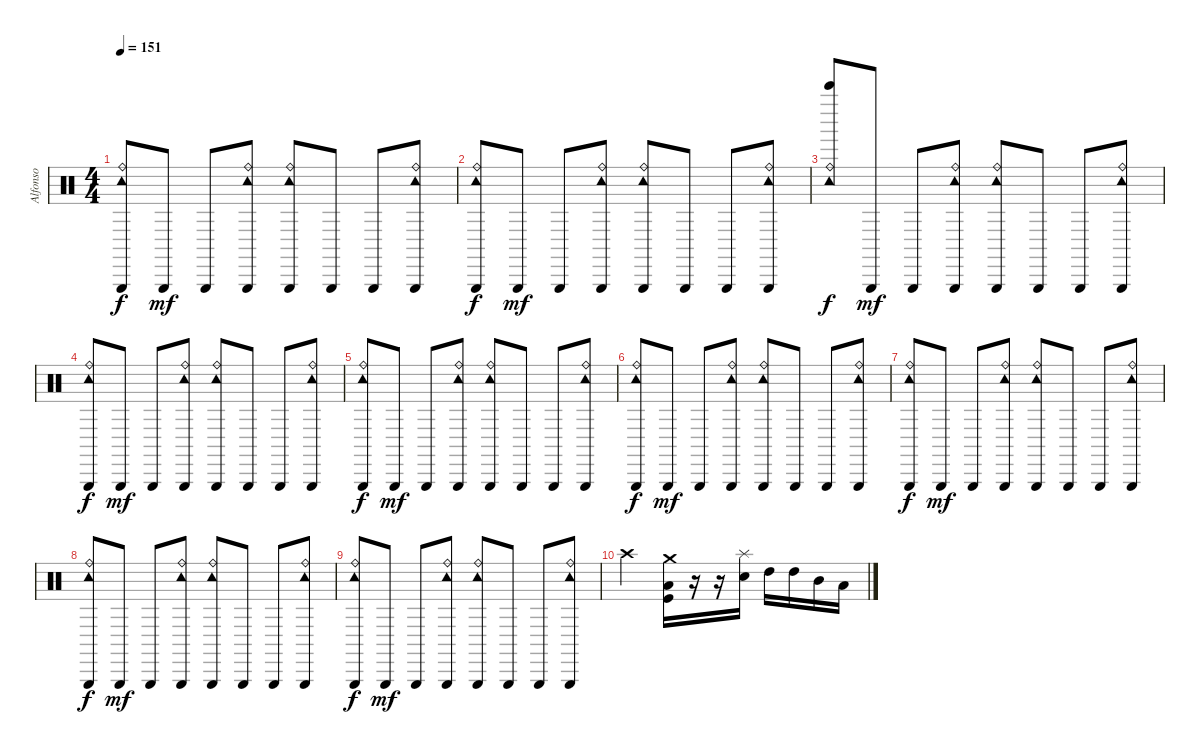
\track ("Alfonso" "Alfonso") {instrument percussion}
\staff {score}
\articulation defaults
\ts (4 4)
\tempo 151
\clef neutral
\ks c
("Triangle (hit)" "Ride (bell)" "Tambourine (hit)").8{dy f} "Triangle (hit)".8{dy mf} "Triangle (hit)".8 ("Triangle (hit)" "Ride (bell)" "Tambourine (hit)").8 ("Triangle (hit)" "Ride (bell)" "Tambourine (hit)").8 "Triangle (hit)".8 "Triangle (hit)".8 ("Triangle (hit)" "Ride (bell)" "Tambourine (hit)").8 |
("Triangle (hit)" "Ride (bell)" "Tambourine (hit)").8{dy f} "Triangle (hit)".8{dy mf} "Triangle (hit)".8 ("Triangle (hit)" "Ride (bell)" "Tambourine (hit)").8 ("Triangle (hit)" "Ride (bell)" "Tambourine (hit)").8 "Triangle (hit)".8 "Triangle (hit)".8 ("Triangle (hit)" "Ride (bell)" "Tambourine (hit)").8 |
("Bell Tree (hit)" "Ride (bell)" "Tambourine (hit)").8{dy f} "Triangle (hit)".8{dy mf} "Triangle (hit)".8 ("Triangle (hit)" "Ride (bell)" "Tambourine (hit)").8 ("Triangle (hit)" "Ride (bell)" "Tambourine (hit)").8 "Triangle (hit)".8 "Triangle (hit)".8 ("Triangle (hit)" "Ride (bell)" "Tambourine (hit)").8 |
("Triangle (hit)" "Ride (bell)" "Tambourine (hit)").8{dy f} "Triangle (hit)".8{dy mf} "Triangle (hit)".8 ("Triangle (hit)" "Ride (bell)" "Tambourine (hit)").8 ("Triangle (hit)" "Ride (bell)" "Tambourine (hit)").8 "Triangle (hit)".8 "Triangle (hit)".8 ("Triangle (hit)" "Ride (bell)" "Tambourine (hit)").8 |
("Triangle (hit)" "Ride (bell)" "Tambourine (hit)").8{dy f} "Triangle (hit)".8{dy mf} "Triangle (hit)".8 ("Triangle (hit)" "Ride (bell)" "Tambourine (hit)").8 ("Triangle (hit)" "Ride (bell)" "Tambourine (hit)").8 "Triangle (hit)".8 "Triangle (hit)".8 ("Triangle (hit)" "Ride (bell)" "Tambourine (hit)").8 |
("Triangle (hit)" "Ride (bell)" "Tambourine (hit)").8{dy f} "Triangle (hit)".8{dy mf} "Triangle (hit)".8 ("Triangle (hit)" "Ride (bell)" "Tambourine (hit)").8 ("Triangle (hit)" "Ride (bell)" "Tambourine (hit)").8 "Triangle (hit)".8 "Triangle (hit)".8 ("Triangle (hit)" "Ride (bell)" "Tambourine (hit)").8 |
("Triangle (hit)" "Ride (bell)" "Tambourine (hit)").8{dy f} "Triangle (hit)".8{dy mf} "Triangle (hit)".8 ("Triangle (hit)" "Ride (bell)" "Tambourine (hit)").8 ("Triangle (hit)" "Ride (bell)" "Tambourine (hit)").8 "Triangle (hit)".8 "Triangle (hit)".8 ("Triangle (hit)" "Ride (bell)" "Tambourine (hit)").8 |
("Triangle (hit)" "Ride (bell)" "Tambourine (hit)").8{dy f} "Triangle (hit)".8{dy mf} "Triangle (hit)".8 ("Triangle (hit)" "Ride (bell)" "Tambourine (hit)").8 ("Triangle (hit)" "Ride (bell)" "Tambourine (hit)").8 "Triangle (hit)".8 "Triangle (hit)".8 ("Triangle (hit)" "Ride (bell)" "Tambourine (hit)").8 |
("Triangle (hit)" "Ride (bell)" "Tambourine (hit)").8{dy f} "Triangle (hit)".8{dy mf} "Triangle (hit)".8 ("Triangle (hit)" "Ride (bell)" "Tambourine (hit)").8 ("Triangle (hit)" "Ride (bell)" "Tambourine (hit)").8 "Triangle (hit)".8 "Triangle (hit)".8 ("Triangle (hit)" "Ride (bell)" "Tambourine (hit)").8 |
"Crash high (hit)".2 ("Low Floor Tom (hit)" "Kick (hit)" "Crash medium (hit)").16 r.16 r.16 ("Snare (hit) 2" "Splash (hit)").16 "High Tom (hit)".16 "High Tom (hit)".16 "Mid Tom (hit)".16 "Low Tom (hit)".16
